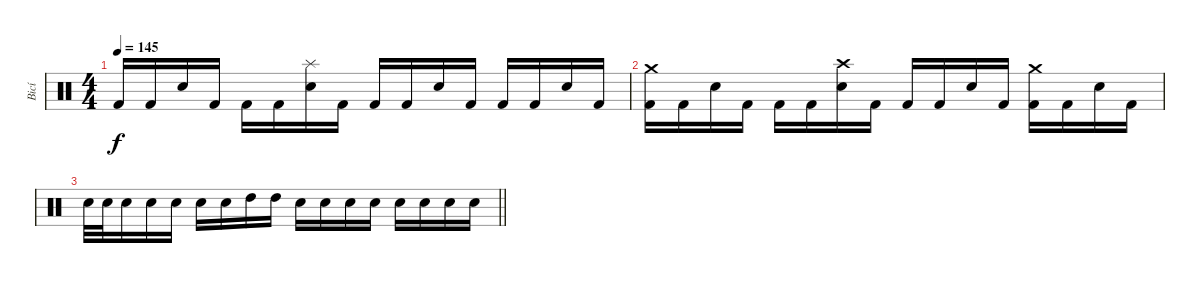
\track ("Bicí" "Bicí") {instrument percussion}
\staff {score}
\articulation defaults
\ts (4 4)
\tempo 145
\clef neutral
\ks c "Kick (hit) 2".16{dy f} "Kick (hit) 2".16 "Electric Snare (hit)".16 "Kick (hit) 2".16 "Kick (hit) 2".16 "Kick (hit) 2".16
("Electric Snare (hit)" "Splash (hit)").16 "Kick (hit) 2".16 "Kick (hit) 2".16 "Kick (hit) 2".16 "Electric Snare (hit)".16 "Kick (hit) 2".16 "Kick (hit) 2".16 "Kick (hit) 2".16 "Electric Snare (hit)".16 "Kick (hit) 2".16 |
("Kick (hit) 2" "Crash medium (hit)").16 "Kick (hit) 2".16 "Electric Snare (hit)".16 "Kick (hit) 2".16 "Kick (hit) 2".16 "Kick (hit) 2".16 ("Electric Snare (hit)" "Crash high (hit)").16 "Kick (hit) 2".16 "Kick (hit) 2".16 "Kick (hit) 2".16 "Electric Snare (hit)".16 "Kick (hit) 2".16 ("Kick (hit) 2" "Crash medium (hit)").16 "Kick (hit) 2".16 "Electric Snare (hit)".16 "Kick (hit) 2".16 |
\barLineRight lightlight "Electric Snare (hit)".32 "Electric Snare (hit)".32 "Electric Snare (hit)".16 "Electric Snare (hit)".16 "Electric Snare (hit)".16 "Electric Snare (hit)".16 "Electric Snare (hit)".16 "High Tom (hit)".16 "High Tom (hit)".16 "Electric Snare (hit)".16 "Electric Snare (hit)".16 "Electric Snare (hit)".16 "Electric Snare (hit)".16 "Electric Snare (hit)".16 "Electric Snare (hit)".16 "Electric Snare (hit)".16 "Electric Snare (hit)".16
